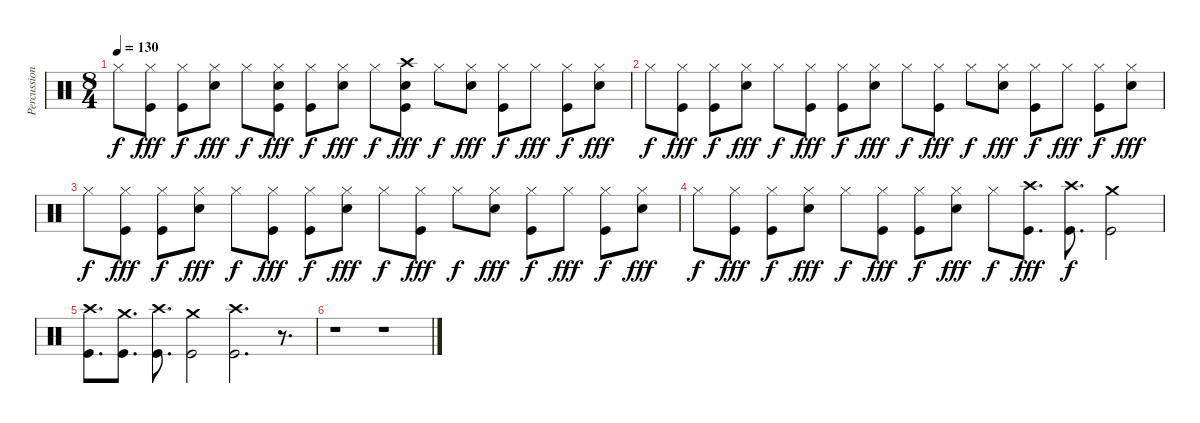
\track ("Percussion" "Percussion") {instrument percussion}
\staff {score}
\articulation defaults
\ts (8 4)
\tempo 130
\clef neutral
\ks c "Hi-Hat (closed)".8{dy f}
("Hi-Hat (closed)" "Kick (hit)").8{dy fff} ("Hi-Hat (closed)" "Kick (hit)").8{dy f} ("Hi-Hat (closed)" "Electric Snare (hit)").8{dy fff} "Hi-Hat (closed)".8{dy f} ("Hi-Hat (closed)" "Electric Snare (hit)" "Kick (hit)").8{dy fff} ("Hi-Hat (closed)" "Kick (hit)").8{dy f} ("Hi-Hat (closed)" "Electric Snare (hit)").8{dy fff} "Hi-Hat (closed)".8{dy f} ("Crash high (hit)" "Electric Snare (hit)" "Kick (hit)").8{dy fff} "Hi-Hat (closed)".8{dy f} ("Hi-Hat (closed)" "Electric Snare (hit)").8{dy fff} ("Hi-Hat (closed)" "Kick (hit)").8{dy f} "Hi-Hat (closed)".8{dy fff} ("Hi-Hat (closed)" "Kick (hit)").8{dy f} ("Hi-Hat (closed)" "Electric Snare (hit)").8{dy fff} |
"Hi-Hat (closed)".8{dy f} ("Hi-Hat (closed)" "Kick (hit)").8{dy fff} ("Hi-Hat (closed)" "Kick (hit)").8{dy f} ("Hi-Hat (closed)" "Electric Snare (hit)").8{dy fff} "Hi-Hat (closed)".8{dy f} ("Hi-Hat (closed)" "Kick (hit)").8{dy fff} ("Hi-Hat (closed)" "Kick (hit)").8{dy f} ("Hi-Hat (closed)" "Electric Snare (hit)").8{dy fff} "Hi-Hat (closed)".8{dy f} ("Hi-Hat (closed)" "Kick (hit)").8{dy fff} "Hi-Hat (closed)".8{dy f} ("Hi-Hat (closed)" "Electric Snare (hit)").8{dy fff} ("Hi-Hat (closed)" "Kick (hit)").8{dy f} "Hi-Hat (closed)".8{dy fff} ("Hi-Hat (closed)" "Kick (hit)").8{dy f} ("Hi-Hat (closed)" "Electric Snare (hit)").8{dy fff} |
"Hi-Hat (closed)".8{dy f} ("Hi-Hat (closed)" "Kick (hit)").8{dy fff} ("Hi-Hat (closed)" "Kick (hit)").8{dy f} ("Hi-Hat (closed)" "Electric Snare (hit)").8{dy fff} "Hi-Hat (closed)".8{dy f} ("Hi-Hat (closed)" "Kick (hit)").8{dy fff} ("Hi-Hat (closed)" "Kick (hit)").8{dy f} ("Hi-Hat (closed)" "Electric Snare (hit)").8{dy fff} "Hi-Hat (closed)".8{dy f} ("Hi-Hat (closed)" "Kick (hit)").8{dy fff} "Hi-Hat (closed)".8{dy f} ("Hi-Hat (closed)" "Electric Snare (hit)").8{dy fff} ("Hi-Hat (closed)" "Kick (hit)").8{dy f} "Hi-Hat (closed)".8{dy fff} ("Hi-Hat (closed)" "Kick (hit)").8{dy f} ("Hi-Hat (closed)" "Electric Snare (hit)").8{dy fff} |
"Hi-Hat (closed)".8{dy f} ("Hi-Hat (closed)" "Kick (hit)").8{dy fff} ("Hi-Hat (closed)" "Kick (hit)").8{dy f} ("Hi-Hat (closed)" "Electric Snare (hit)").8{dy fff} "Hi-Hat (closed)".8{dy f} ("Hi-Hat (closed)" "Kick (hit)").8{dy fff} ("Hi-Hat (closed)" "Kick (hit)").8{dy f} ("Hi-Hat (closed)" "Electric Snare (hit)").8{dy fff} "Hi-Hat (closed)".8{dy f} ("Crash high (hit)" "Kick (hit)").8{d dy fff} ("Crash high (hit)" "Kick (hit)").8{d dy f} ("Crash medium (hit)" "Kick (hit)").2 |
("Crash high (hit)" "Kick (hit)").8{d} ("Crash medium (hit)" "Kick (hit)").8{d} ("Crash high (hit)" "Kick (hit)").8{d} ("Crash medium (hit)" "Kick (hit)").2 ("Crash high (hit)" "Kick (hit)").2{d} r.8{d} |
r.1 r.1
